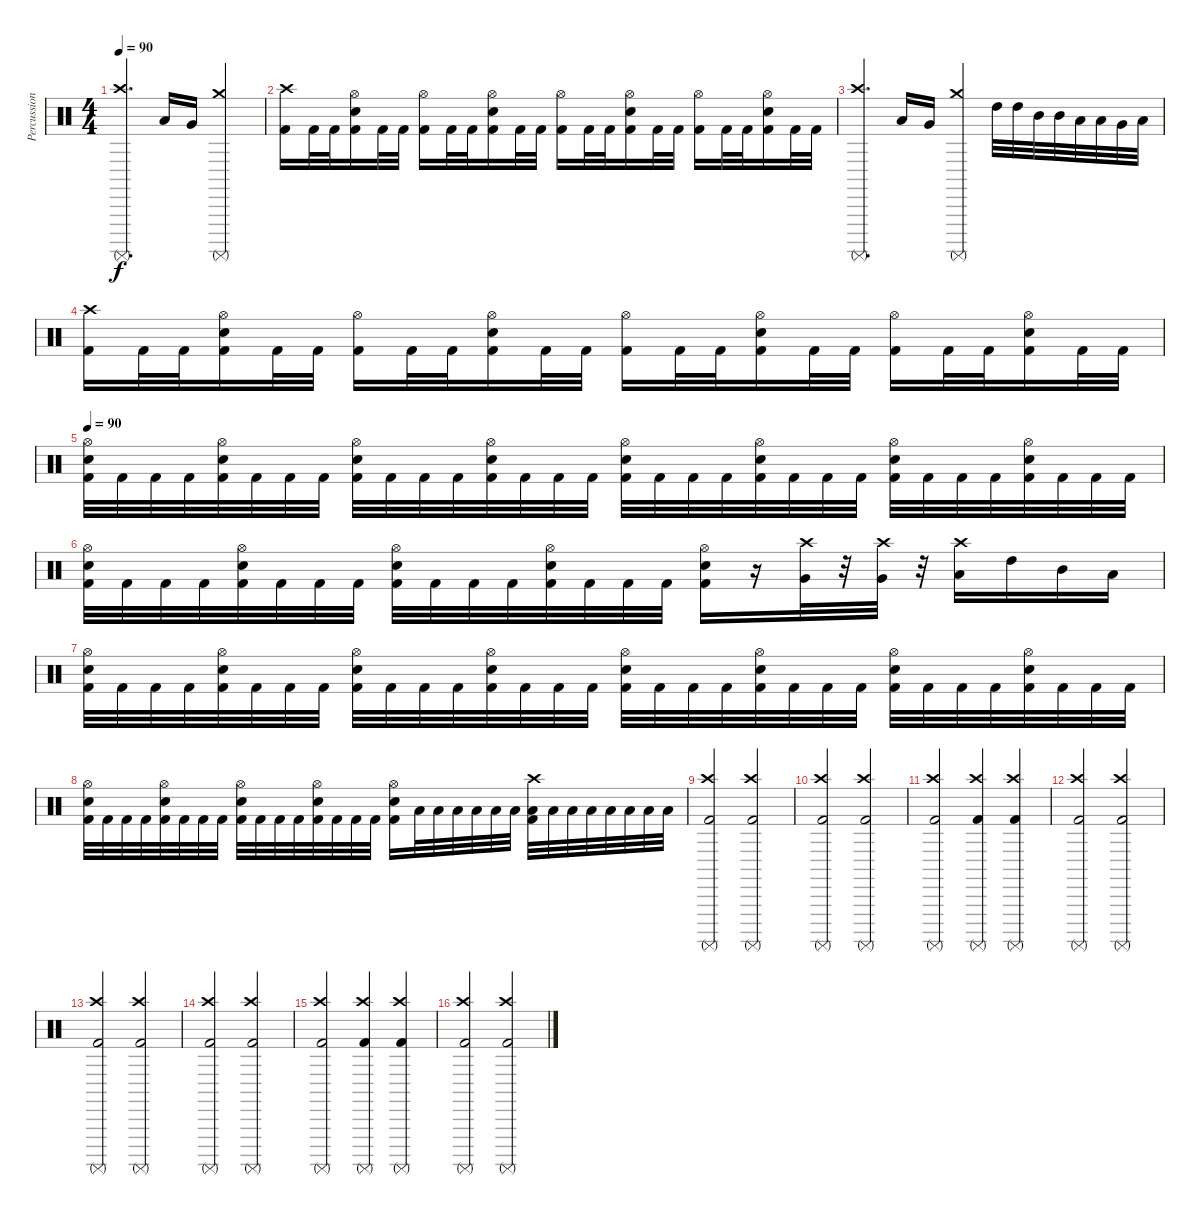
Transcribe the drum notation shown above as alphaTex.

\track ("Percussion" "Percussion") {instrument percussion}
\staff {score}
\articulation defaults
\ts (4 4)
\tempo 90
\clef neutral
\ks c
("Surdo (mute)" "Crash high (hit)").4{d dy f} "Low Tom (hit)".16 "Very Low Tom (hit)".16 ("Surdo (mute)" "Crash medium (hit)").2 |
("Kick (hit) 2" "Crash high (hit)").16 "Kick (hit) 2".32 "Kick (hit) 2".32 ("Kick (hit) 2" "Electric Snare (hit)" "Hi-Hat (open)").16 "Kick (hit) 2".32 "Kick (hit) 2".32 ("Kick (hit) 2" "Hi-Hat (open)").16 "Kick (hit) 2".32 "Kick (hit) 2".32 ("Kick (hit) 2" "Electric Snare (hit)" "Hi-Hat (open)").16 "Kick (hit) 2".32 "Kick (hit) 2".32 ("Kick (hit) 2" "Hi-Hat (open)").16 "Kick (hit) 2".32 "Kick (hit) 2".32 ("Kick (hit) 2" "Electric Snare (hit)" "Hi-Hat (open)").16 "Kick (hit) 2".32 "Kick (hit) 2".32 ("Kick (hit) 2" "Hi-Hat (open)").16 "Kick (hit) 2".32 "Kick (hit) 2".32 ("Kick (hit) 2" "Electric Snare (hit)" "Hi-Hat (open)").16 "Kick (hit) 2".32 "Kick (hit) 2".32 |
("Surdo (mute)" "Crash high (hit)").4{d} "Low Tom (hit)".16 "Very Low Tom (hit)".16 ("Surdo (mute)" "Crash medium (hit)").4 "High Tom (hit)".32 "High Tom (hit)".32 "Mid Tom (hit)".32 "Mid Tom (hit)".32 "Low Tom (hit)".32 "Low Tom (hit)".32 "Very Low Tom (hit)".32 "Low Floor Tom (hit)".32 |
("Kick (hit) 2" "Crash high (hit)").16 "Kick (hit) 2".32 "Kick (hit) 2".32 ("Kick (hit) 2" "Electric Snare (hit)" "Hi-Hat (open)").16 "Kick (hit) 2".32 "Kick (hit) 2".32 ("Kick (hit) 2" "Hi-Hat (open)").16 "Kick (hit) 2".32 "Kick (hit) 2".32 ("Kick (hit) 2" "Electric Snare (hit)" "Hi-Hat (open)").16 "Kick (hit) 2".32 "Kick (hit) 2".32 ("Kick (hit) 2" "Hi-Hat (open)").16 "Kick (hit) 2".32 "Kick (hit) 2".32 ("Kick (hit) 2" "Electric Snare (hit)" "Hi-Hat (open)").16 "Kick (hit) 2".32 "Kick (hit) 2".32 ("Kick (hit) 2" "Hi-Hat (open)").16 "Kick (hit) 2".32 "Kick (hit) 2".32 ("Kick (hit) 2" "Electric Snare (hit)" "Hi-Hat (open)").16 "Kick (hit) 2".32 "Kick (hit) 2".32 |
\tempo 90
("Kick (hit) 2" "Hi-Hat (open)" "Electric Snare (hit)").32 "Kick (hit) 2".32 "Kick (hit) 2".32 "Kick (hit) 2".32 ("Kick (hit) 2" "Hi-Hat (open)" "Electric Snare (hit)").32 "Kick (hit) 2".32 "Kick (hit) 2".32 "Kick (hit) 2".32 ("Kick (hit) 2" "Hi-Hat (open)" "Electric Snare (hit)").32 "Kick (hit) 2".32 "Kick (hit) 2".32 "Kick (hit) 2".32 ("Kick (hit) 2" "Hi-Hat (open)" "Electric Snare (hit)").32 "Kick (hit) 2".32 "Kick (hit) 2".32 "Kick (hit) 2".32 ("Kick (hit) 2" "Hi-Hat (open)" "Electric Snare (hit)").32 "Kick (hit) 2".32 "Kick (hit) 2".32 "Kick (hit) 2".32 ("Kick (hit) 2" "Hi-Hat (open)" "Electric Snare (hit)").32 "Kick (hit) 2".32 "Kick (hit) 2".32 "Kick (hit) 2".32 ("Kick (hit) 2" "Hi-Hat (open)" "Electric Snare (hit)").32 "Kick (hit) 2".32 "Kick (hit) 2".32 "Kick (hit) 2".32 ("Kick (hit) 2" "Hi-Hat (open)" "Electric Snare (hit)").32 "Kick (hit) 2".32 "Kick (hit) 2".32 "Kick (hit) 2".32 |
("Kick (hit) 2" "Hi-Hat (open)" "Electric Snare (hit)").32 "Kick (hit) 2".32 "Kick (hit) 2".32 "Kick (hit) 2".32 ("Kick (hit) 2" "Hi-Hat (open)" "Electric Snare (hit)").32 "Kick (hit) 2".32 "Kick (hit) 2".32 "Kick (hit) 2".32 ("Kick (hit) 2" "Hi-Hat (open)" "Electric Snare (hit)").32 "Kick (hit) 2".32 "Kick (hit) 2".32 "Kick (hit) 2".32 ("Kick (hit) 2" "Hi-Hat (open)" "Electric Snare (hit)").32 "Kick (hit) 2".32 "Kick (hit) 2".32 "Kick (hit) 2".32 ("Kick (hit) 2" "Hi-Hat (open)" "Electric Snare (hit)").16 r.16 ("Crash high (hit)" "Very Low Tom (hit)").32 r.32 ("Crash high (hit)" "Very Low Tom (hit)").32 r.32 ("Crash high (hit)" "Low Floor Tom (hit)").16 "High Tom (hit)".16 "Mid Tom (hit)".16 "Low Tom (hit)".16 |
("Kick (hit) 2" "Hi-Hat (open)" "Electric Snare (hit)").32 "Kick (hit) 2".32 "Kick (hit) 2".32 "Kick (hit) 2".32 ("Kick (hit) 2" "Hi-Hat (open)" "Electric Snare (hit)").32 "Kick (hit) 2".32 "Kick (hit) 2".32 "Kick (hit) 2".32 ("Kick (hit) 2" "Hi-Hat (open)" "Electric Snare (hit)").32 "Kick (hit) 2".32 "Kick (hit) 2".32 "Kick (hit) 2".32 ("Kick (hit) 2" "Hi-Hat (open)" "Electric Snare (hit)").32 "Kick (hit) 2".32 "Kick (hit) 2".32 "Kick (hit) 2".32 ("Kick (hit) 2" "Hi-Hat (open)" "Electric Snare (hit)").32 "Kick (hit) 2".32 "Kick (hit) 2".32 "Kick (hit) 2".32 ("Kick (hit) 2" "Hi-Hat (open)" "Electric Snare (hit)").32 "Kick (hit) 2".32 "Kick (hit) 2".32 "Kick (hit) 2".32 ("Kick (hit) 2" "Hi-Hat (open)" "Electric Snare (hit)").32 "Kick (hit) 2".32 "Kick (hit) 2".32 "Kick (hit) 2".32 ("Kick (hit) 2" "Hi-Hat (open)" "Electric Snare (hit)").32 "Kick (hit) 2".32 "Kick (hit) 2".32 "Kick (hit) 2".32 |
("Kick (hit) 2" "Hi-Hat (open)" "Electric Snare (hit)").32 "Kick (hit) 2".32 "Kick (hit) 2".32 "Kick (hit) 2".32 ("Kick (hit) 2" "Hi-Hat (open)" "Electric Snare (hit)").32 "Kick (hit) 2".32 "Kick (hit) 2".32 "Kick (hit) 2".32 ("Kick (hit) 2" "Hi-Hat (open)" "Electric Snare (hit)").32 "Kick (hit) 2".32 "Kick (hit) 2".32 "Kick (hit) 2".32 ("Kick (hit) 2" "Hi-Hat (open)" "Electric Snare (hit)").32 "Kick (hit) 2".32 "Kick (hit) 2".32 "Kick (hit) 2".32 ("Kick (hit) 2" "Hi-Hat (open)" "Electric Snare (hit)").16 "Low Tom (hit)".32 "Low Tom (hit)".32 "Low Tom (hit)".32 "Low Tom (hit)".32 "Low Tom (hit)".32 "Low Tom (hit)".32 ("Low Tom (hit)" "Crash high (hit)" "Kick (hit) 2").32 "Low Tom (hit)".32 "Low Tom (hit)".32 "Low Tom (hit)".32 "Low Tom (hit)".32 "Low Tom (hit)".32 "Low Tom (hit)".32 "Low Tom (hit)".32 |
("Kick (hit) 2" "Crash high (hit)" "Surdo (mute)").2 ("Kick (hit) 2" "Crash high (hit)" "Surdo (mute)").2 |
("Kick (hit) 2" "Crash high (hit)" "Surdo (mute)").2 ("Kick (hit) 2" "Crash high (hit)" "Surdo (mute)").2 |
("Kick (hit) 2" "Crash high (hit)" "Surdo (mute)").2 ("Kick (hit) 2" "Crash high (hit)" "Surdo (mute)").4 ("Kick (hit) 2" "Crash high (hit)" "Surdo (mute)").4 |
("Kick (hit) 2" "Crash high (hit)" "Surdo (mute)").2 ("Kick (hit) 2" "Crash high (hit)" "Surdo (mute)").2 |
("Kick (hit) 2" "Crash high (hit)" "Surdo (mute)").2 ("Kick (hit) 2" "Crash high (hit)" "Surdo (mute)").2 |
("Kick (hit) 2" "Crash high (hit)" "Surdo (mute)").2 ("Kick (hit) 2" "Crash high (hit)" "Surdo (mute)").2 |
("Kick (hit) 2" "Crash high (hit)" "Surdo (mute)").2 ("Kick (hit) 2" "Crash high (hit)" "Surdo (mute)").4 ("Kick (hit) 2" "Crash high (hit)" "Surdo (mute)").4 |
("Kick (hit) 2" "Crash high (hit)" "Surdo (mute)").2 ("Kick (hit) 2" "Crash high (hit)" "Surdo (mute)").2
